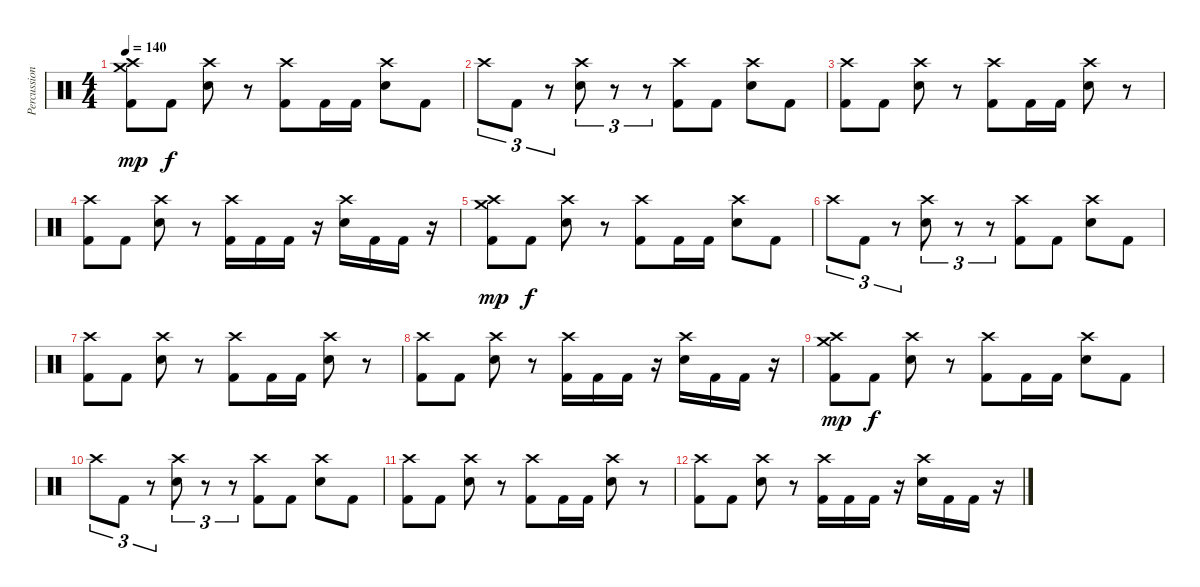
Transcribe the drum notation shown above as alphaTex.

\track ("Percussion" "Percussion") {instrument percussion}
\staff {score}
\articulation defaults
\ts (4 4)
\tempo 140
\clef neutral
\ks c
("Crash high (hit)" "Crash medium (hit)" "Kick (hit) 2").8{dy mp} "Kick (hit) 2".8{dy f} ("Crash high (hit)" "Snare (hit) 2").8 r.8 ("Crash high (hit)" "Kick (hit) 2").8 "Kick (hit) 2".16 "Kick (hit) 2".16 ("Crash high (hit)" "Snare (hit) 2").8 "Kick (hit) 2".8 |
"Crash high (hit)".8{tu (3 2)} "Kick (hit) 2".8{tu (3 2)} r.8{tu (3 2)} ("Crash high (hit)" "Snare (hit) 2").8{tu (3 2)} r.8{tu (3 2)} r.8{tu (3 2)} ("Crash high (hit)" "Kick (hit) 2").8 "Kick (hit) 2".8 ("Crash high (hit)" "Snare (hit) 2").8 "Kick (hit) 2".8 |
("Crash high (hit)" "Kick (hit) 2").8 "Kick (hit) 2".8 ("Crash high (hit)" "Snare (hit) 2").8 r.8 ("Crash high (hit)" "Kick (hit) 2").8 "Kick (hit) 2".16 "Kick (hit) 2".16 ("Crash high (hit)" "Snare (hit) 2").8 r.8 |
("Crash high (hit)" "Kick (hit) 2").8 "Kick (hit) 2".8 ("Crash high (hit)" "Snare (hit) 2").8 r.8 ("Crash high (hit)" "Kick (hit) 2").16 "Kick (hit) 2".16 "Kick (hit) 2".16 r.16 ("Crash high (hit)" "Snare (hit) 2").16 "Kick (hit) 2".16 "Kick (hit) 2".16 r.16 |
("Crash high (hit)" "Crash medium (hit)" "Kick (hit) 2").8{dy mp} "Kick (hit) 2".8{dy f} ("Crash high (hit)" "Snare (hit) 2").8 r.8 ("Crash high (hit)" "Kick (hit) 2").8 "Kick (hit) 2".16 "Kick (hit) 2".16 ("Crash high (hit)" "Snare (hit) 2").8 "Kick (hit) 2".8 |
"Crash high (hit)".8{tu (3 2)} "Kick (hit) 2".8{tu (3 2)} r.8{tu (3 2)} ("Crash high (hit)" "Snare (hit) 2").8{tu (3 2)} r.8{tu (3 2)} r.8{tu (3 2)} ("Crash high (hit)" "Kick (hit) 2").8 "Kick (hit) 2".8 ("Crash high (hit)" "Snare (hit) 2").8 "Kick (hit) 2".8 |
("Crash high (hit)" "Kick (hit) 2").8 "Kick (hit) 2".8 ("Crash high (hit)" "Snare (hit) 2").8 r.8 ("Crash high (hit)" "Kick (hit) 2").8 "Kick (hit) 2".16 "Kick (hit) 2".16 ("Crash high (hit)" "Snare (hit) 2").8 r.8 |
("Crash high (hit)" "Kick (hit) 2").8 "Kick (hit) 2".8 ("Crash high (hit)" "Snare (hit) 2").8 r.8 ("Crash high (hit)" "Kick (hit) 2").16 "Kick (hit) 2".16 "Kick (hit) 2".16 r.16 ("Crash high (hit)" "Snare (hit) 2").16 "Kick (hit) 2".16 "Kick (hit) 2".16 r.16 |
("Crash high (hit)" "Crash medium (hit)" "Kick (hit) 2").8{dy mp} "Kick (hit) 2".8{dy f} ("Crash high (hit)" "Snare (hit) 2").8 r.8 ("Crash high (hit)" "Kick (hit) 2").8 "Kick (hit) 2".16 "Kick (hit) 2".16 ("Crash high (hit)" "Snare (hit) 2").8 "Kick (hit) 2".8 |
"Crash high (hit)".8{tu (3 2)} "Kick (hit) 2".8{tu (3 2)} r.8{tu (3 2)} ("Crash high (hit)" "Snare (hit) 2").8{tu (3 2)} r.8{tu (3 2)} r.8{tu (3 2)} ("Crash high (hit)" "Kick (hit) 2").8 "Kick (hit) 2".8 ("Crash high (hit)" "Snare (hit) 2").8 "Kick (hit) 2".8 |
("Crash high (hit)" "Kick (hit) 2").8 "Kick (hit) 2".8 ("Crash high (hit)" "Snare (hit) 2").8 r.8 ("Crash high (hit)" "Kick (hit) 2").8 "Kick (hit) 2".16 "Kick (hit) 2".16 ("Crash high (hit)" "Snare (hit) 2").8 r.8 |
("Crash high (hit)" "Kick (hit) 2").8 "Kick (hit) 2".8 ("Crash high (hit)" "Snare (hit) 2").8 r.8 ("Crash high (hit)" "Kick (hit) 2").16 "Kick (hit) 2".16 "Kick (hit) 2".16 r.16 ("Crash high (hit)" "Snare (hit) 2").16 "Kick (hit) 2".16 "Kick (hit) 2".16 r.16
